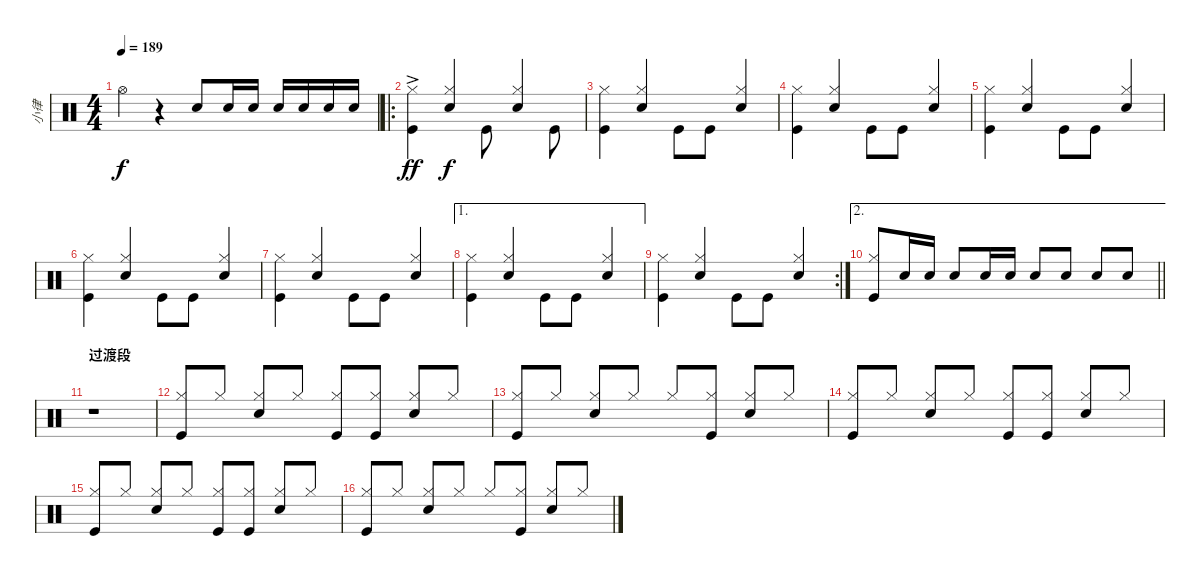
\track ("小律" "小律") {instrument percussion}
\staff {score}
\articulation defaults
\ts (4 4)
\tempo 189
\clef neutral
\ks c "Hi-Hat (open)"{t}.4{dy f}
r.4{beam Up} "Snare (hit) 2".8{beam Up} "Snare (hit) 2".16{beam Up} "Snare (hit) 2".16{beam Up} "Snare (hit) 2".16{beam Up} "Snare (hit) 2".16{beam Up} "Snare (hit) 2".16{beam Up} "Snare (hit) 2".16{beam Up} |
\ro
("Kick (hit)" "Hi-Hat (closed)"{ac}).4{dy ff} ("Hi-Hat (closed)" "Snare (hit) 2").4{dy f beam Up} "Kick (hit)".8{beam Down} ("Hi-Hat (closed)" "Snare (hit) 2").4{beam Up} "Kick (hit)".8{beam Down} |
("Hi-Hat (closed)" "Kick (hit)").4 ("Hi-Hat (closed)" "Snare (hit) 2").4{beam Up} "Kick (hit)".8{beam Down} "Kick (hit)".8{beam Down} ("Hi-Hat (closed)" "Snare (hit) 2").4{beam Up} |
("Hi-Hat (closed)" "Kick (hit)").4 ("Hi-Hat (closed)" "Snare (hit) 2").4{beam Up} "Kick (hit)".8{beam Down} "Kick (hit)".8{beam Down} ("Hi-Hat (closed)" "Snare (hit) 2").4{beam Up} |
("Hi-Hat (closed)" "Kick (hit)").4 ("Hi-Hat (closed)" "Snare (hit) 2").4{beam Up} "Kick (hit)".8{beam Down} "Kick (hit)".8{beam Down} ("Hi-Hat (closed)" "Snare (hit) 2").4{beam Up} |
("Hi-Hat (closed)" "Kick (hit)").4 ("Hi-Hat (closed)" "Snare (hit) 2").4{beam Up} "Kick (hit)".8{beam Down} "Kick (hit)".8{beam Down} ("Hi-Hat (closed)" "Snare (hit) 2").4{beam Up} |
("Hi-Hat (closed)" "Kick (hit)").4 ("Hi-Hat (closed)" "Snare (hit) 2").4{beam Up} "Kick (hit)".8{beam Down} "Kick (hit)".8{beam Down} ("Hi-Hat (closed)" "Snare (hit) 2").4{beam Up} |
\ae 1
("Hi-Hat (closed)" "Kick (hit)").4 ("Hi-Hat (closed)" "Snare (hit) 2").4{beam Up} "Kick (hit)".8{beam Down} "Kick (hit)".8{beam Down} ("Hi-Hat (closed)" "Snare (hit) 2").4{beam Up} |
\rc 2
("Hi-Hat (closed)" "Kick (hit)").4 ("Hi-Hat (closed)" "Snare (hit) 2").4{beam Up} "Kick (hit)".8{beam Down} "Kick (hit)".8{beam Down} ("Hi-Hat (closed)" "Snare (hit) 2").4{beam Up} |
\ae 2
\barLineRight lightlight
("Hi-Hat (closed)" "Kick (hit)").8{beam Up} "Snare (hit) 2".16{beam Up} "Snare (hit) 2".16{beam Up} "Snare (hit) 2".8{beam Up} "Snare (hit) 2".16{beam Up} "Snare (hit) 2".16{beam Up} "Snare (hit) 2".8{beam Up} "Snare (hit) 2".8{beam Up} "Snare (hit) 2".8{beam Up} "Snare (hit) 2".8{beam Up} |
\section ("" "过渡段")
r.1 |
("Kick (hit)" "Hi-Hat (closed)").8{beam Up} "Hi-Hat (closed)".8{beam Up} ("Snare (hit) 2" "Hi-Hat (closed)").8{beam Up} "Hi-Hat (closed)".8{beam Up} ("Hi-Hat (closed)" "Kick (hit)").8{beam Up} ("Hi-Hat (closed)" "Kick (hit)").8{beam Up} ("Hi-Hat (closed)" "Snare (hit) 2").8{beam Up} "Hi-Hat (closed)".8{beam Up} |
("Hi-Hat (closed)" "Kick (hit)").8{beam Up} "Hi-Hat (closed)".8{beam Up} ("Snare (hit) 2" "Hi-Hat (closed)").8{beam Up} "Hi-Hat (closed)".8{beam Up} "Hi-Hat (closed)".8{beam Up} ("Hi-Hat (closed)" "Kick (hit)").8{beam Up} ("Hi-Hat (closed)" "Snare (hit) 2").8{beam Up} "Hi-Hat (closed)".8{beam Up} |
("Hi-Hat (closed)" "Kick (hit)").8{beam Up} "Hi-Hat (closed)".8{beam Up} ("Hi-Hat (closed)" "Snare (hit) 2").8{beam Up} "Hi-Hat (closed)".8{beam Up} ("Hi-Hat (closed)" "Kick (hit)").8{beam Up} ("Hi-Hat (closed)" "Kick (hit)").8{beam Up} ("Hi-Hat (closed)" "Snare (hit) 2").8{beam Up} "Hi-Hat (closed)".8{beam Up} |
("Hi-Hat (closed)" "Kick (hit)").8{beam Up} "Hi-Hat (closed)".8{beam Up} ("Hi-Hat (closed)" "Snare (hit) 2").8{beam Up} "Hi-Hat (closed)".8{beam Up} ("Hi-Hat (closed)" "Kick (hit)").8{beam Up} ("Hi-Hat (closed)" "Kick (hit)").8{beam Up} ("Hi-Hat (closed)" "Snare (hit) 2").8{beam Up} "Hi-Hat (closed)".8{beam Up} |
("Kick (hit)" "Hi-Hat (closed)").8{beam Up} "Hi-Hat (closed)".8{beam Up} ("Hi-Hat (closed)" "Snare (hit) 2").8{beam Up} "Hi-Hat (closed)".8{beam Up} "Hi-Hat (closed)".8{beam Up} ("Hi-Hat (closed)" "Kick (hit)").8{beam Up} ("Hi-Hat (closed)" "Snare (hit) 2").8{beam Up} "Hi-Hat (closed)".8{beam Up}
